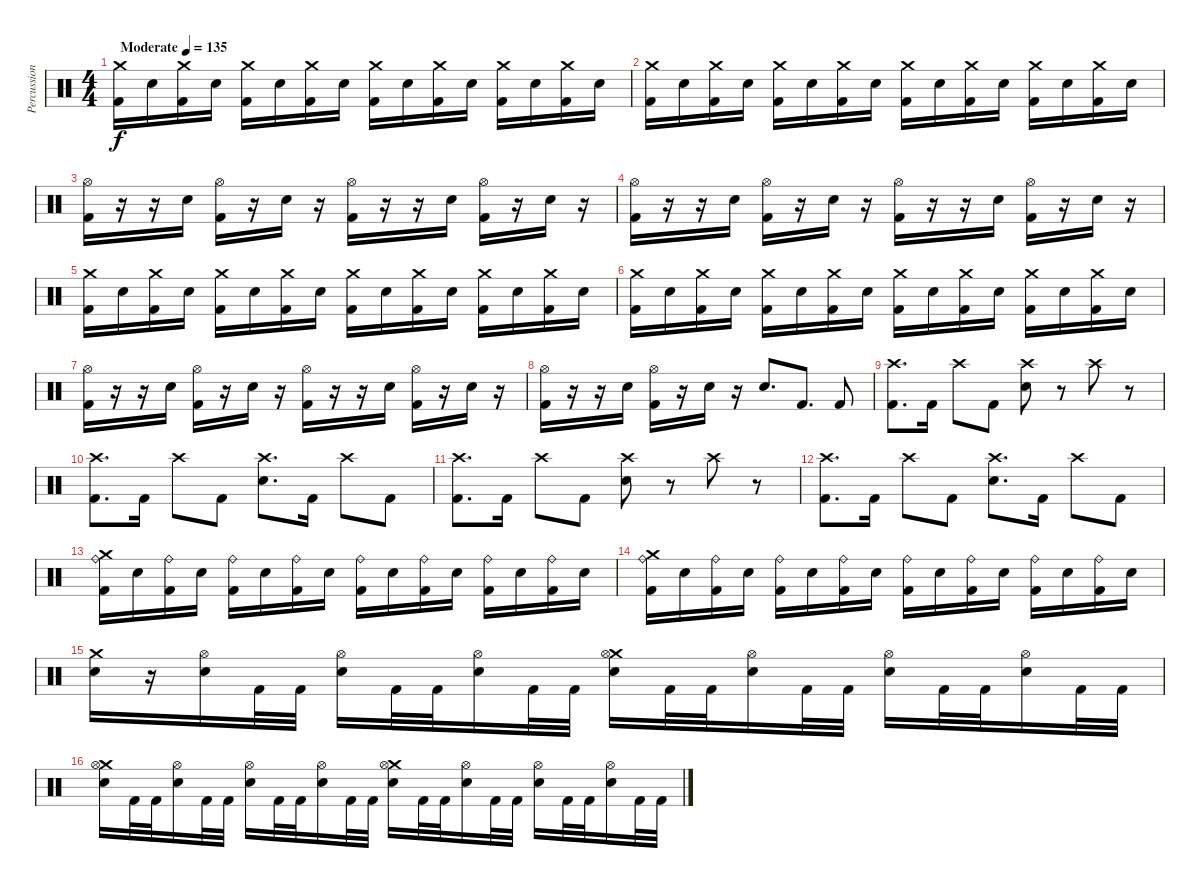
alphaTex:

\track ("Percussion" "Percussion") {instrument percussion}
\staff {score}
\articulation defaults
\ts (4 4)
\tempo (135 "Moderate")
\clef neutral
\ks c
("Crash medium (hit)" "Kick (hit) 2").16{dy f} "Electric Snare (hit)".16 ("Crash medium (hit)" "Kick (hit) 2").16 "Electric Snare (hit)".16 ("Crash medium (hit)" "Kick (hit) 2").16 "Electric Snare (hit)".16 ("Crash medium (hit)" "Kick (hit) 2").16 "Electric Snare (hit)".16 ("Crash medium (hit)" "Kick (hit) 2").16 "Electric Snare (hit)".16 ("Crash medium (hit)" "Kick (hit) 2").16 "Electric Snare (hit)".16 ("Crash medium (hit)" "Kick (hit) 2").16 "Electric Snare (hit)".16 ("Crash medium (hit)" "Kick (hit) 2").16 "Electric Snare (hit)".16 |
("Crash medium (hit)" "Kick (hit) 2").16 "Electric Snare (hit)".16 ("Crash medium (hit)" "Kick (hit) 2").16 "Electric Snare (hit)".16 ("Crash medium (hit)" "Kick (hit) 2").16 "Electric Snare (hit)".16 ("Crash medium (hit)" "Kick (hit) 2").16 "Electric Snare (hit)".16 ("Crash medium (hit)" "Kick (hit) 2").16 "Electric Snare (hit)".16 ("Crash medium (hit)" "Kick (hit) 2").16 "Electric Snare (hit)".16 ("Crash medium (hit)" "Kick (hit) 2").16 "Electric Snare (hit)".16 ("Crash medium (hit)" "Kick (hit) 2").16 "Electric Snare (hit)".16 |
("Hi-Hat (open)" "Kick (hit) 2").16 r.16 r.16 "Electric Snare (hit)".16 ("Hi-Hat (open)" "Kick (hit) 2").16 r.16 "Electric Snare (hit)".16 r.16 ("Hi-Hat (open)" "Kick (hit) 2").16 r.16 r.16 "Electric Snare (hit)".16 ("Hi-Hat (open)" "Kick (hit) 2").16 r.16 "Electric Snare (hit)".16 r.16 |
("Hi-Hat (open)" "Kick (hit) 2").16 r.16 r.16 "Electric Snare (hit)".16 ("Hi-Hat (open)" "Kick (hit) 2").16 r.16 "Electric Snare (hit)".16 r.16 ("Hi-Hat (open)" "Kick (hit) 2").16 r.16 r.16 "Electric Snare (hit)".16 ("Hi-Hat (open)" "Kick (hit) 2").16 r.16 "Electric Snare (hit)".16 r.16 |
("Crash medium (hit)" "Kick (hit) 2").16 "Electric Snare (hit)".16 ("Crash medium (hit)" "Kick (hit) 2").16 "Electric Snare (hit)".16 ("Crash medium (hit)" "Kick (hit) 2").16 "Electric Snare (hit)".16 ("Crash medium (hit)" "Kick (hit) 2").16 "Electric Snare (hit)".16 ("Crash medium (hit)" "Kick (hit) 2").16 "Electric Snare (hit)".16 ("Crash medium (hit)" "Kick (hit) 2").16 "Electric Snare (hit)".16 ("Crash medium (hit)" "Kick (hit) 2").16 "Electric Snare (hit)".16 ("Crash medium (hit)" "Kick (hit) 2").16 "Electric Snare (hit)".16 |
("Crash medium (hit)" "Kick (hit) 2").16 "Electric Snare (hit)".16 ("Crash medium (hit)" "Kick (hit) 2").16 "Electric Snare (hit)".16 ("Crash medium (hit)" "Kick (hit) 2").16 "Electric Snare (hit)".16 ("Crash medium (hit)" "Kick (hit) 2").16 "Electric Snare (hit)".16 ("Crash medium (hit)" "Kick (hit) 2").16 "Electric Snare (hit)".16 ("Crash medium (hit)" "Kick (hit) 2").16 "Electric Snare (hit)".16 ("Crash medium (hit)" "Kick (hit) 2").16 "Electric Snare (hit)".16 ("Crash medium (hit)" "Kick (hit) 2").16 "Electric Snare (hit)".16 |
("Hi-Hat (open)" "Kick (hit) 2").16 r.16 r.16 "Electric Snare (hit)".16 ("Hi-Hat (open)" "Kick (hit) 2").16 r.16 "Electric Snare (hit)".16 r.16 ("Hi-Hat (open)" "Kick (hit) 2").16 r.16 r.16 "Electric Snare (hit)".16 ("Hi-Hat (open)" "Kick (hit) 2").16 r.16 "Electric Snare (hit)".16 r.16 |
("Hi-Hat (open)" "Kick (hit) 2").16 r.16 r.16 "Electric Snare (hit)".16 ("Hi-Hat (open)" "Kick (hit) 2").16 r.16 "Electric Snare (hit)".16 r.16 "Electric Snare (hit)".8{d} "Kick (hit) 2".8{d} "Kick (hit) 2".8 |
("Crash high (hit)" "Kick (hit) 2").8{d} "Kick (hit) 2".16 "Crash high (hit)".8 "Kick (hit) 2".8 ("Crash high (hit)" "Electric Snare (hit)").8 r.8 "Crash high (hit)".8 r.8 |
("Crash high (hit)" "Kick (hit) 2").8{d} "Kick (hit) 2".16 "Crash high (hit)".8 "Kick (hit) 2".8 ("Crash high (hit)" "Electric Snare (hit)").8{d} "Kick (hit) 2".16 "Crash high (hit)".8 "Kick (hit) 2".8 |
("Crash high (hit)" "Kick (hit) 2").8{d} "Kick (hit) 2".16 "Crash high (hit)".8 "Kick (hit) 2".8 ("Crash high (hit)" "Electric Snare (hit)").8 r.8 "Crash high (hit)".8 r.8 |
("Crash high (hit)" "Kick (hit) 2").8{d} "Kick (hit) 2".16 "Crash high (hit)".8 "Kick (hit) 2".8 ("Crash high (hit)" "Electric Snare (hit)").8{d} "Kick (hit) 2".16 "Crash high (hit)".8 "Kick (hit) 2".8 |
("Crash medium (hit)" "Ride (bell)" "Kick (hit) 2").16 "Electric Snare (hit)".16 ("Ride (bell)" "Kick (hit) 2").16 "Electric Snare (hit)".16 ("Ride (bell)" "Kick (hit) 2").16 "Electric Snare (hit)".16 ("Ride (bell)" "Kick (hit) 2").16 "Electric Snare (hit)".16 ("Ride (bell)" "Kick (hit) 2").16 "Electric Snare (hit)".16 ("Ride (bell)" "Kick (hit) 2").16 "Electric Snare (hit)".16 ("Ride (bell)" "Kick (hit) 2").16 "Electric Snare (hit)".16 ("Ride (bell)" "Kick (hit) 2").16 "Electric Snare (hit)".16 |
("Crash medium (hit)" "Ride (bell)" "Kick (hit) 2").16 "Electric Snare (hit)".16 ("Ride (bell)" "Kick (hit) 2").16 "Electric Snare (hit)".16 ("Ride (bell)" "Kick (hit) 2").16 "Electric Snare (hit)".16 ("Ride (bell)" "Kick (hit) 2").16 "Electric Snare (hit)".16 ("Ride (bell)" "Kick (hit) 2").16 "Electric Snare (hit)".16 ("Ride (bell)" "Kick (hit) 2").16 "Electric Snare (hit)".16 ("Ride (bell)" "Kick (hit) 2").16 "Electric Snare (hit)".16 ("Ride (bell)" "Kick (hit) 2").16 "Electric Snare (hit)".16 |
("Crash medium (hit)" "Electric Snare (hit)").16 r.16 ("Hi-Hat (open)" "Electric Snare (hit)").16 "Kick (hit) 2".32 "Kick (hit) 2".32 ("Hi-Hat (open)" "Electric Snare (hit)").16 "Kick (hit) 2".32 "Kick (hit) 2".32 ("Hi-Hat (open)" "Electric Snare (hit)").16 "Kick (hit) 2".32 "Kick (hit) 2".32 ("Crash medium (hit)" "Hi-Hat (open)" "Electric Snare (hit)").16 "Kick (hit) 2".32 "Kick (hit) 2".32 ("Hi-Hat (open)" "Electric Snare (hit)").16 "Kick (hit) 2".32 "Kick (hit) 2".32 ("Hi-Hat (open)" "Electric Snare (hit)").16 "Kick (hit) 2".32 "Kick (hit) 2".32 ("Hi-Hat (open)" "Electric Snare (hit)").16 "Kick (hit) 2".32 "Kick (hit) 2".32 |
("Crash medium (hit)" "Hi-Hat (open)" "Electric Snare (hit)").16 "Kick (hit) 2".32 "Kick (hit) 2".32 ("Hi-Hat (open)" "Electric Snare (hit)").16 "Kick (hit) 2".32 "Kick (hit) 2".32 ("Hi-Hat (open)" "Electric Snare (hit)").16 "Kick (hit) 2".32 "Kick (hit) 2".32 ("Hi-Hat (open)" "Electric Snare (hit)").16 "Kick (hit) 2".32 "Kick (hit) 2".32 ("Crash medium (hit)" "Hi-Hat (open)" "Electric Snare (hit)").16 "Kick (hit) 2".32 "Kick (hit) 2".32 ("Hi-Hat (open)" "Electric Snare (hit)").16 "Kick (hit) 2".32 "Kick (hit) 2".32 ("Hi-Hat (open)" "Electric Snare (hit)").16 "Kick (hit) 2".32 "Kick (hit) 2".32 ("Hi-Hat (open)" "Electric Snare (hit)").16 "Kick (hit) 2".32 "Kick (hit) 2".32
